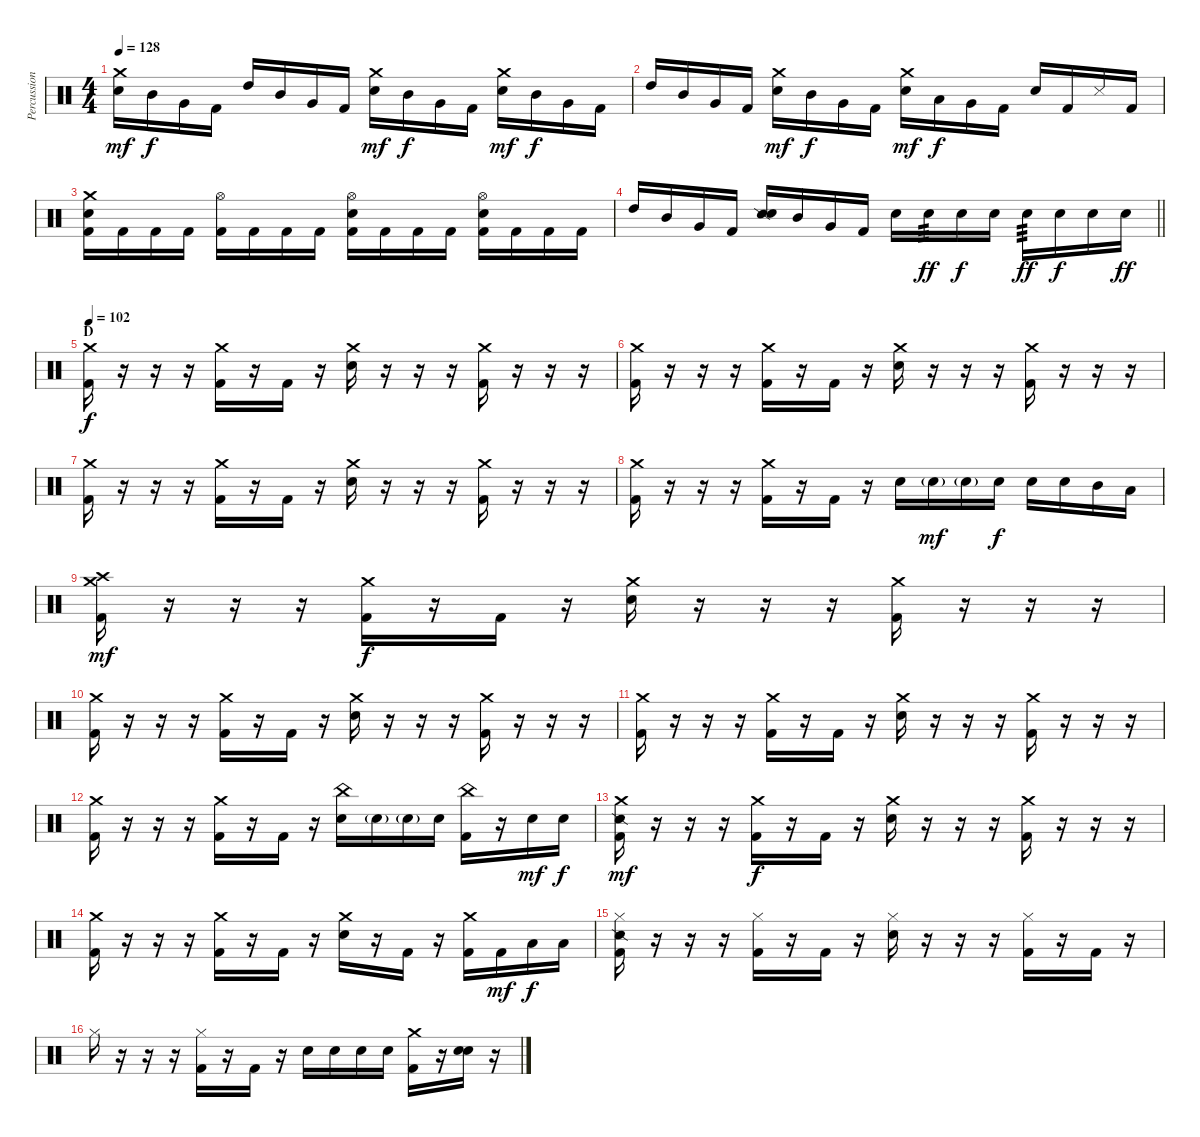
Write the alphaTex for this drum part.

\track ("Percussion" "Percussion") {instrument percussion}
\staff {score}
\articulation defaults
\ts (4 4)
\tempo 128
\clef neutral
\ks c
("Crash medium (hit)" "Snare (hit) 2").16{dy mf} "Mid Tom (hit)".16{dy f} "Very Low Tom (hit)".16 "Kick (hit) 2".16 "High Tom (hit)".16 "Mid Tom (hit)".16 "Very Low Tom (hit)".16 "Kick (hit) 2".16 ("Crash medium (hit)" "Snare (hit) 2").16{dy mf} "Mid Tom (hit)".16{dy f} "Very Low Tom (hit)".16 "Kick (hit) 2".16 ("Crash medium (hit)" "Snare (hit) 2").16{dy mf} "Mid Tom (hit)".16{dy f} "Very Low Tom (hit)".16 "Kick (hit) 2".16 |
"High Tom (hit)".16 "Mid Tom (hit)".16 "Very Low Tom (hit)".16 "Kick (hit) 2".16 ("Crash medium (hit)" "Snare (hit) 2").16{dy mf} "Mid Tom (hit)".16{dy f} "Very Low Tom (hit)".16 "Kick (hit) 2".16 ("Crash medium (hit)" "Snare (hit) 2").16{dy mf} "Low Tom (hit)".16{dy f} "Very Low Tom (hit)".16 "Kick (hit) 2".16 "Snare (hit) 2".16 "Kick (hit) 2".16 "Metronome (hit)".16 "Kick (hit) 2".16 |
("Crash medium (hit)" "Snare (hit) 2" "Kick (hit) 2").16 "Kick (hit) 2".16 "Kick (hit) 2".16 "Kick (hit) 2".16 ("Hi-Hat (open)" "Kick (hit) 2").16 "Kick (hit) 2".16 "Kick (hit) 2".16 "Kick (hit) 2".16 ("Hi-Hat (open)" "Snare (hit) 2" "Kick (hit) 2").16 "Kick (hit) 2".16 "Kick (hit) 2".16 "Kick (hit) 2".16 ("Hi-Hat (open)" "Snare (hit) 2" "Kick (hit) 2").16 "Kick (hit) 2".16 "Kick (hit) 2".16 "Kick (hit) 2".16 |
\barLineRight lightlight "High Tom (hit)".16 "Mid Tom (hit)".16 "Very Low Tom (hit)".16 "Kick (hit) 2".16
("Snare (side stick) 2" "Snare (hit) 2").16 "Mid Tom (hit)".16 "Very Low Tom (hit)".16 "Kick (hit) 2".16 "Snare (hit) 2".16 "Snare (hit) 2".16{tp 3 dy ff} "Snare (hit) 2".16{dy f} "Snare (hit) 2".16 "Snare (hit) 2".16{tp 3 dy ff} "Snare (hit) 2".16{dy f} "Snare (hit) 2".16 "Snare (hit) 2".16{dy ff} |
\section ("" "D")
\tempo 102
("Crash medium (hit)" "Kick (hit) 2").16{dy f} r.16 r.16 r.16 ("Crash medium (hit)" "Kick (hit) 2").16 r.16 "Kick (hit) 2".16 r.16 ("Crash medium (hit)" "Snare (hit) 2").16 r.16 r.16 r.16 ("Crash medium (hit)" "Kick (hit) 2").16 r.16 r.16 r.16 |
("Crash medium (hit)" "Kick (hit) 2").16 r.16 r.16 r.16 ("Crash medium (hit)" "Kick (hit) 2").16 r.16 "Kick (hit) 2".16 r.16 ("Crash medium (hit)" "Snare (hit) 2").16 r.16 r.16 r.16 ("Crash medium (hit)" "Kick (hit) 2").16 r.16 r.16 r.16 |
("Crash medium (hit)" "Kick (hit) 2").16 r.16 r.16 r.16 ("Crash medium (hit)" "Kick (hit) 2").16 r.16 "Kick (hit) 2".16 r.16 ("Crash medium (hit)" "Snare (hit) 2").16 r.16 r.16 r.16 ("Crash medium (hit)" "Kick (hit) 2").16 r.16 r.16 r.16 |
("Crash medium (hit)" "Kick (hit) 2").16 r.16 r.16 r.16 ("Crash medium (hit)" "Kick (hit) 2").16 r.16 "Kick (hit) 2".16 r.16 "Snare (hit) 2".16 "Snare (hit) 2"{g}.16{dy mf} "Snare (hit) 2"{g}.16 "Snare (hit) 2".16{dy f} "Snare (hit) 2".16 "Snare (hit) 2".16 "Mid Tom (hit)".16 "Low Tom (hit)".16 |
("Crash medium (hit)" "Crash high (hit)" "Kick (hit) 2").16{dy mf} r.16 r.16 r.16 ("Crash medium (hit)" "Kick (hit) 2").16{dy f} r.16 "Kick (hit) 2".16 r.16 ("Crash medium (hit)" "Snare (hit) 2").16 r.16 r.16 r.16 ("Crash medium (hit)" "Kick (hit) 2").16 r.16 r.16 r.16 |
("Crash medium (hit)" "Kick (hit) 2").16 r.16 r.16 r.16 ("Crash medium (hit)" "Kick (hit) 2").16 r.16 "Kick (hit) 2".16 r.16 ("Crash medium (hit)" "Snare (hit) 2").16 r.16 r.16 r.16 ("Crash medium (hit)" "Kick (hit) 2").16 r.16 r.16 r.16 |
("Crash medium (hit)" "Kick (hit) 2").16 r.16 r.16 r.16 ("Crash medium (hit)" "Kick (hit) 2").16 r.16 "Kick (hit) 2".16 r.16 ("Crash medium (hit)" "Snare (hit) 2").16 r.16 r.16 r.16 ("Crash medium (hit)" "Kick (hit) 2").16 r.16 r.16 r.16 |
("Crash medium (hit)" "Kick (hit) 2").16 r.16 r.16 r.16 ("Crash medium (hit)" "Kick (hit) 2").16 r.16 "Kick (hit) 2".16 r.16 ("China (hit)" "Snare (hit) 2").16 "Snare (hit) 2"{g}.16 "Snare (hit) 2"{g}.16 "Snare (hit) 2".16 ("China (hit)" "Kick (hit) 2").16 r.16 "Snare (hit) 2".16{dy mf} "Snare (hit) 2".16{dy f} |
("Crash medium (hit)" "Snare (side stick) 2" "Kick (hit) 2").16{dy mf} r.16 r.16 r.16 ("Crash medium (hit)" "Kick (hit) 2").16{dy f} r.16 "Kick (hit) 2".16 r.16 ("Crash medium (hit)" "Snare (hit) 2").16 r.16 r.16 r.16 ("Crash medium (hit)" "Kick (hit) 2").16 r.16 r.16 r.16 |
("Crash medium (hit)" "Kick (hit) 2").16 r.16 r.16 r.16 ("Crash medium (hit)" "Kick (hit) 2").16 r.16 "Kick (hit) 2".16 r.16 ("Crash medium (hit)" "Snare (hit) 2").16 r.16 "Kick (hit) 2".16 r.16 ("Crash medium (hit)" "Kick (hit) 2").16 "Kick (hit) 2".16{dy mf} "Low Tom (hit)".16{dy f} "Low Tom (hit)".16 |
("Hi-Hat (closed)" "Snare (side stick) 2" "Kick (hit) 2").16 r.16 r.16 r.16 ("Hi-Hat (closed)" "Kick (hit) 2").16 r.16 "Kick (hit) 2".16 r.16 ("Hi-Hat (closed)" "Snare (hit) 2").16 r.16 r.16 r.16 ("Hi-Hat (closed)" "Kick (hit) 2").16 r.16 "Kick (hit) 2".16 r.16 |
"Hi-Hat (closed)".16 r.16 r.16 r.16 ("Hi-Hat (closed)" "Kick (hit) 2").16 r.16 "Kick (hit) 2".16 r.16 "Snare (hit) 2".16 "Snare (hit) 2".16 "Snare (hit) 2".16 "Snare (hit) 2".16 ("Crash medium (hit)" "Kick (hit) 2").16 r.16 ("Snare (hit)" "Snare (hit) 2").16 r.16
